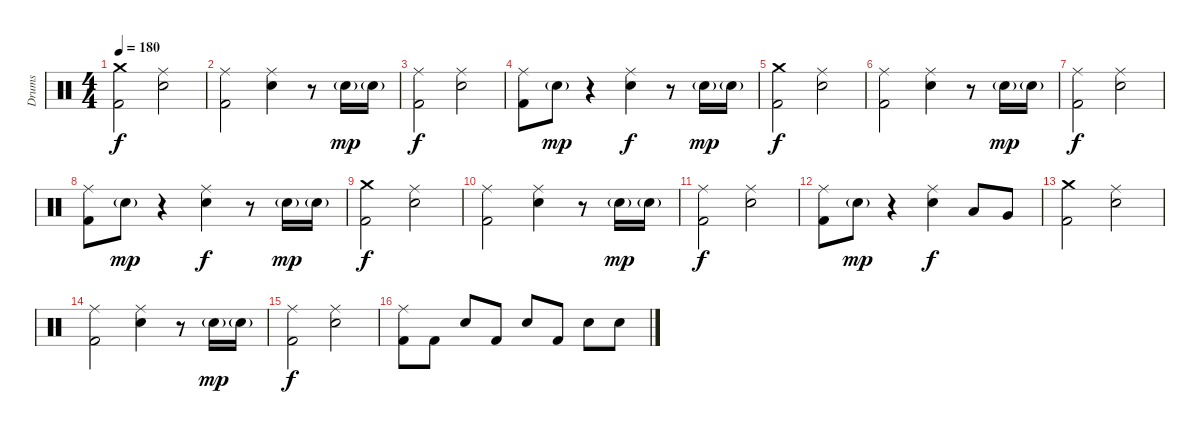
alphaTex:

\track ("Drums" "Drums") {instrument percussion}
\staff {score}
\articulation defaults
\ts (4 4)
\section ("" "")
\tempo 180
\clef neutral
\ks c
("Crash medium (hit)" "Kick (hit) 2").2{dy f} ("Ride (middle)" "Electric Snare (hit)").2 |
("Ride (middle)" "Kick (hit) 2").2 ("Ride (middle)" "Electric Snare (hit)").4 r.8 "Electric Snare (hit)"{g}.16{dy mp} "Electric Snare (hit)"{g}.16 |
("Ride (middle)" "Kick (hit) 2").2{dy f} ("Ride (middle)" "Electric Snare (hit)").2 |
("Ride (middle)" "Kick (hit) 2").8 "Electric Snare (hit)"{g}.8{dy mp} r.4 ("Ride (middle)" "Electric Snare (hit)").4{dy f} r.8 "Electric Snare (hit)"{g}.16{dy mp} "Electric Snare (hit)"{g}.16 |
("Crash medium (hit)" "Kick (hit) 2").2{dy f} ("Ride (middle)" "Electric Snare (hit)").2 |
("Ride (middle)" "Kick (hit) 2").2 ("Ride (middle)" "Electric Snare (hit)").4 r.8 "Electric Snare (hit)"{g}.16{dy mp} "Electric Snare (hit)"{g}.16 |
("Ride (middle)" "Kick (hit) 2").2{dy f} ("Ride (middle)" "Electric Snare (hit)").2 |
("Ride (middle)" "Kick (hit) 2").8 "Electric Snare (hit)"{g}.8{dy mp} r.4 ("Ride (middle)" "Electric Snare (hit)").4{dy f} r.8 "Electric Snare (hit)"{g}.16{dy mp} "Electric Snare (hit)"{g}.16 |
("Crash medium (hit)" "Kick (hit) 2").2{dy f} ("Ride (middle)" "Electric Snare (hit)").2 |
("Ride (middle)" "Kick (hit) 2").2 ("Ride (middle)" "Electric Snare (hit)").4 r.8 "Electric Snare (hit)"{g}.16{dy mp} "Electric Snare (hit)"{g}.16 |
("Ride (middle)" "Kick (hit) 2").2{dy f} ("Ride (middle)" "Electric Snare (hit)").2 |
("Ride (middle)" "Kick (hit) 2").8 "Electric Snare (hit)"{g}.8{dy mp} r.4 ("Ride (middle)" "Electric Snare (hit)").4{dy f} "Low Tom (hit)".8 "Very Low Tom (hit)".8 |
("Crash medium (hit)" "Kick (hit) 2").2 ("Ride (middle)" "Electric Snare (hit)").2 |
("Ride (middle)" "Kick (hit) 2").2 ("Ride (middle)" "Electric Snare (hit)").4 r.8 "Electric Snare (hit)"{g}.16{dy mp} "Electric Snare (hit)"{g}.16 |
("Ride (middle)" "Kick (hit) 2").2{dy f} ("Ride (middle)" "Electric Snare (hit)").2 |
("Ride (middle)" "Kick (hit) 2").8 "Kick (hit) 2".8 "Electric Snare (hit)".8 "Kick (hit) 2".8 "Electric Snare (hit)".8 "Kick (hit) 2".8 "Electric Snare (hit)".8 "Electric Snare (hit)".8
